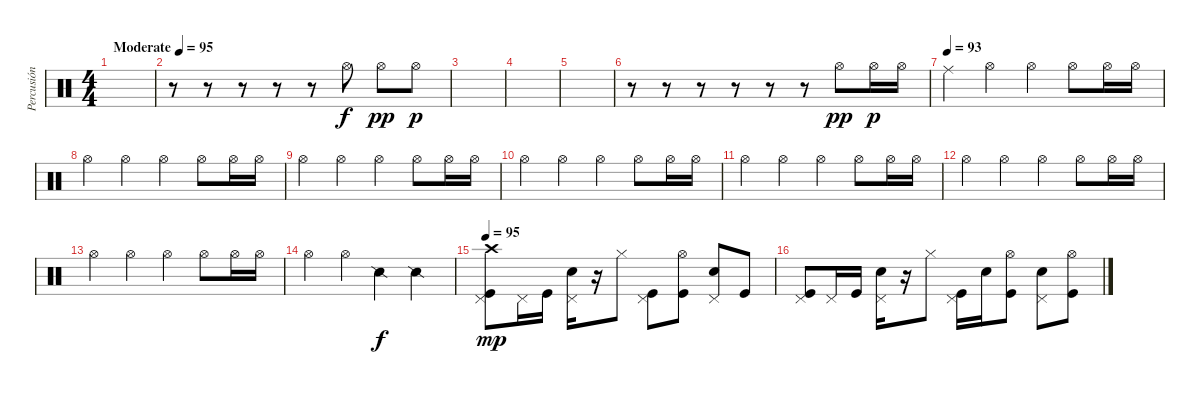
\track ("Percusión" "Percusión") {instrument percussion}
\staff {score}
\articulation defaults
\ts (4 4)
\tempo (95 "Moderate")
\clef neutral
\ks c
|
r.8 r.8 r.8 r.8 r.8 "Hi-Hat (open)".8 "Hi-Hat (open)".8{dy pp} "Hi-Hat (open)".8{dy p} |
|
|
|
r.8 r.8 r.8 r.8 r.8 r.8 "Hi-Hat (open)".8{dy pp} "Hi-Hat (open)".16{dy p} "Hi-Hat (open)".16 |
\tempo (93)
"Ride (middle)".4 "Hi-Hat (open)".4 "Hi-Hat (open)".4 "Hi-Hat (open)".8 "Hi-Hat (open)".16 "Hi-Hat (open)".16 |
"Hi-Hat (open)".4 "Hi-Hat (open)".4 "Hi-Hat (open)".4 "Hi-Hat (open)".8 "Hi-Hat (open)".16 "Hi-Hat (open)".16 |
"Hi-Hat (open)".4 "Hi-Hat (open)".4 "Hi-Hat (open)".4 "Hi-Hat (open)".8 "Hi-Hat (open)".16 "Hi-Hat (open)".16 |
"Hi-Hat (open)".4 "Hi-Hat (open)".4 "Hi-Hat (open)".4 "Hi-Hat (open)".8 "Hi-Hat (open)".16 "Hi-Hat (open)".16 |
"Hi-Hat (open)".4 "Hi-Hat (open)".4 "Hi-Hat (open)".4 "Hi-Hat (open)".8 "Hi-Hat (open)".16 "Hi-Hat (open)".16 |
"Hi-Hat (open)".4 "Hi-Hat (open)".4 "Hi-Hat (open)".4 "Hi-Hat (open)".8 "Hi-Hat (open)".16 "Hi-Hat (open)".16 |
"Hi-Hat (open)".4 "Hi-Hat (open)".4 "Hi-Hat (open)".4 "Hi-Hat (open)".8 "Hi-Hat (open)".16 "Hi-Hat (open)".16 |
"Hi-Hat (open)".4 "Hi-Hat (open)".4 "Snare (side stick) 2".4{dy f} "Snare (side stick) 2".4 |
\tempo 95
("Pedal Hi-Hat (hit)" "Kick (hit)" "Crash high (hit)").8{dy mp} "Pedal Hi-Hat (hit)".16 "Kick (hit)".16 ("Pedal Hi-Hat (hit)" "Snare (hit) 2").16 r.16 "Hi-Hat (closed)".8 ("Pedal Hi-Hat (hit)" "Kick (hit)").8 ("Hi-Hat (open)" "Kick (hit)").8 ("Pedal Hi-Hat (hit)" "Snare (hit) 2").8 "Kick (hit)".8 |
("Pedal Hi-Hat (hit)" "Kick (hit)").8 "Pedal Hi-Hat (hit)".16 "Kick (hit)".16 ("Pedal Hi-Hat (hit)" "Snare (hit) 2").16 r.16 "Hi-Hat (closed)".8 ("Pedal Hi-Hat (hit)" "Kick (hit)").16 "Snare (hit) 2".16 ("Hi-Hat (open)" "Kick (hit)").8 ("Pedal Hi-Hat (hit)" "Snare (hit) 2").8 ("Hi-Hat (open)" "Kick (hit)").8
